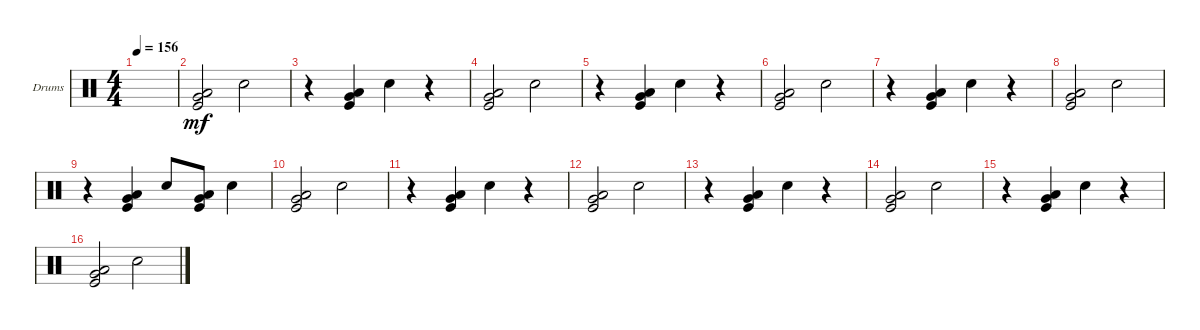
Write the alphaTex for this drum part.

\defaultSystemsLayout 4
\bracketExtendMode groupsimilarinstruments
\firstSystemTrackNameOrientation horizontal
\otherSystemsTrackNameOrientation horizontal
\track ("Drumkit" "Drums") {instrument percussion}
\staff {score}
\articulation defaults
\ts (4 4)
\tempo 156
\clef neutral
\ks c
|
("Low Tom (hit)" "Kick (hit)" "Very Low Tom (hit)").2{dy mf} "Snare (hit) 2".2 |
r.4 ("Low Tom (hit)" "Kick (hit)" "Very Low Tom (hit)").4 "Snare (hit) 2".4 r.4 |
("Low Tom (hit)" "Kick (hit)" "Very Low Tom (hit)").2 "Snare (hit) 2".2 |
r.4 ("Low Tom (hit)" "Kick (hit)" "Very Low Tom (hit)").4 "Snare (hit) 2".4 r.4 |
("Low Tom (hit)" "Kick (hit)" "Very Low Tom (hit)").2 "Snare (hit) 2".2 |
r.4 ("Low Tom (hit)" "Kick (hit)" "Very Low Tom (hit)").4 "Snare (hit) 2".4 r.4 |
("Low Tom (hit)" "Kick (hit)" "Very Low Tom (hit)").2 "Snare (hit) 2".2 |
r.4 ("Low Tom (hit)" "Kick (hit)" "Very Low Tom (hit)").4 "Snare (hit) 2".8 ("Low Tom (hit)" "Kick (hit)" "Very Low Tom (hit)").8 "Snare (hit) 2".4 |
("Low Tom (hit)" "Kick (hit)" "Very Low Tom (hit)").2 "Snare (hit) 2".2 |
r.4 ("Low Tom (hit)" "Kick (hit)" "Very Low Tom (hit)").4 "Snare (hit) 2".4 r.4 |
("Low Tom (hit)" "Kick (hit)" "Very Low Tom (hit)").2 "Snare (hit) 2".2 |
r.4 ("Low Tom (hit)" "Kick (hit)" "Very Low Tom (hit)").4 "Snare (hit) 2".4 r.4 |
("Low Tom (hit)" "Kick (hit)" "Very Low Tom (hit)").2 "Snare (hit) 2".2 |
r.4 ("Low Tom (hit)" "Kick (hit)" "Very Low Tom (hit)").4 "Snare (hit) 2".4 r.4 |
("Low Tom (hit)" "Kick (hit)" "Very Low Tom (hit)").2 "Snare (hit) 2".2
